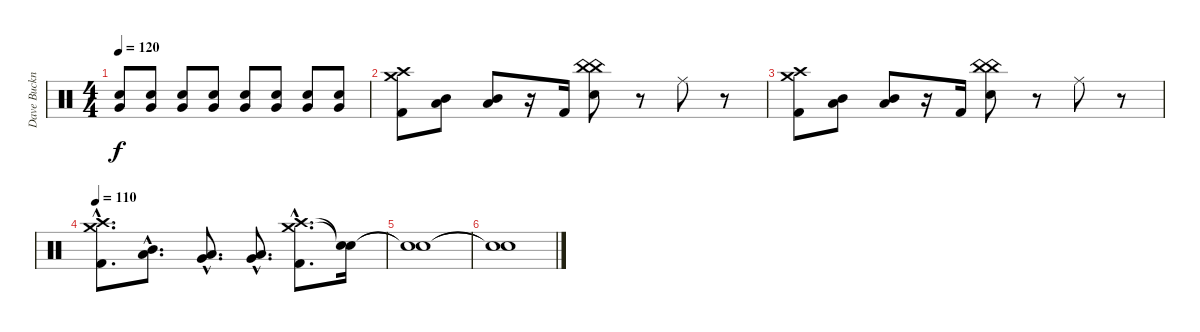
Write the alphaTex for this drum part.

\track ("Dave Buckner RULZ!!! (Drums)" "Dave Buckn") {instrument percussion}
\staff {score}
\articulation defaults
\ts (4 4)
\tempo 120
\clef neutral
\ks c
("Electric Snare (hit)" "Very Low Tom (hit)").8{dy f} ("Electric Snare (hit)" "Very Low Tom (hit)").8 ("Electric Snare (hit)" "Very Low Tom (hit)").8 ("Electric Snare (hit)" "Very Low Tom (hit)").8 ("Electric Snare (hit)" "Very Low Tom (hit)").8 ("Electric Snare (hit)" "Very Low Tom (hit)").8 ("Electric Snare (hit)" "Very Low Tom (hit)").8 ("Electric Snare (hit)" "Very Low Tom (hit)").8 |
("Crash high (hit)" "Crash medium (hit)" "Kick (hit) 2").8 ("Mid Tom (hit)" "Low Tom (hit)").8 ("Mid Tom (hit)" "Low Tom (hit)").8 r.16 "Kick (hit) 2".16 ("China (hit)" "China (hit)" "Electric Snare (hit)").8 r.8 "Ride (middle)".8 r.8 |
("Crash high (hit)" "Crash medium (hit)" "Kick (hit) 2").8 ("Mid Tom (hit)" "Low Tom (hit)").8 ("Mid Tom (hit)" "Low Tom (hit)").8 r.16 "Kick (hit) 2".16 ("China (hit)" "China (hit)" "Electric Snare (hit)").8 r.8 "Ride (middle)".8 r.8 |
\tempo 110
("Crash high (hit)"{hac} "Crash medium (hit)"{hac} "Kick (hit) 2"{hac}).8{d} ("Mid Tom (hit)"{hac} "Low Tom (hit)"{hac}).8{d} ("Low Tom (hit)"{hac} "Very Low Tom (hit)"{hac}).8{d} ("Very Low Tom (hit)"{hac} "Low Floor Tom (hit)"{hac}).8{d} ("Crash high (hit)"{hac} "Crash medium (hit)"{hac} "Kick (hit) 2"{hac}).8{d} ("Snare (hit)"{t} "Snare (hit)"{t}).16 |
("Snare (hit)"{t} "Snare (hit)"{t}).1 |
("Snare (hit)"{t} "Snare (hit)"{t}).1
